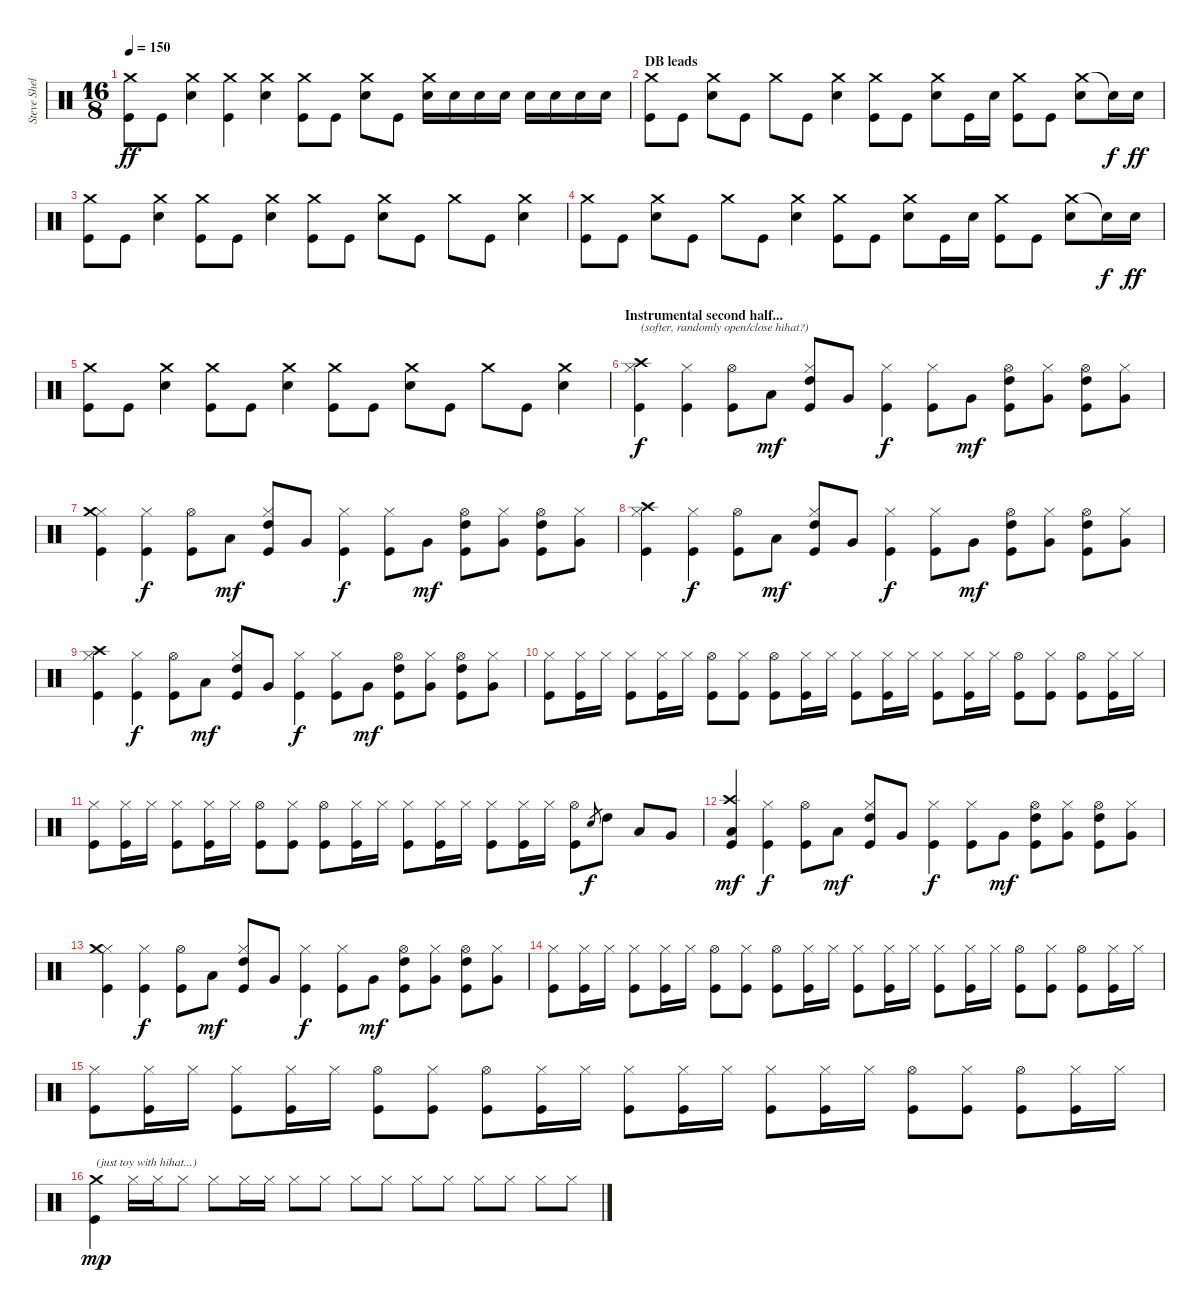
\track ("Steve Shelley" "Steve Shel") {instrument percussion}
\staff {score}
\articulation defaults
\ts (16 8)
\tempo 150
\clef neutral
\ks c
("Crash medium (hit)" "Kick (hit)").8{dy ff} "Kick (hit)".8 ("Crash medium (hit)" "Electric Snare (hit)").4 ("Crash medium (hit)" "Kick (hit)").4 ("Crash medium (hit)" "Electric Snare (hit)").4 ("Crash medium (hit)" "Kick (hit)").8 "Kick (hit)".8 ("Crash medium (hit)" "Electric Snare (hit)").8 "Kick (hit)".8 ("Crash medium (hit)" "Electric Snare (hit)").16 "Electric Snare (hit)".16 "Electric Snare (hit)".16 "Electric Snare (hit)".16 "Electric Snare (hit)".16 "Electric Snare (hit)".16 "Electric Snare (hit)".16 "Electric Snare (hit)".16 |
\section ("" "DB leads")
("Crash medium (hit)" "Kick (hit)").8 "Kick (hit)".8 ("Crash medium (hit)" "Electric Snare (hit)").8 "Kick (hit)".8 "Crash medium (hit)".8 "Kick (hit)".8 ("Crash medium (hit)" "Electric Snare (hit)").4 ("Crash medium (hit)" "Kick (hit)").8 "Kick (hit)".8 ("Crash medium (hit)" "Electric Snare (hit)").8 "Kick (hit)".16 "Electric Snare (hit)".16 ("Crash medium (hit)" "Kick (hit)").8 "Kick (hit)".8 ("Crash medium (hit)" "Electric Snare (hit)").8 "Snare (hit)"{t}.16{dy f} "Electric Snare (hit)".16{dy ff} |
("Crash medium (hit)" "Kick (hit)").8 "Kick (hit)".8 ("Crash medium (hit)" "Electric Snare (hit)").4 ("Crash medium (hit)" "Kick (hit)").8 "Kick (hit)".8 ("Crash medium (hit)" "Electric Snare (hit)").4 ("Crash medium (hit)" "Kick (hit)").8 "Kick (hit)".8 ("Crash medium (hit)" "Electric Snare (hit)").8 "Kick (hit)".8 "Crash medium (hit)".8 "Kick (hit)".8 ("Crash medium (hit)" "Electric Snare (hit)").4 |
("Crash medium (hit)" "Kick (hit)").8 "Kick (hit)".8 ("Crash medium (hit)" "Electric Snare (hit)").8 "Kick (hit)".8 "Crash medium (hit)".8 "Kick (hit)".8 ("Crash medium (hit)" "Electric Snare (hit)").4 ("Crash medium (hit)" "Kick (hit)").8 "Kick (hit)".8 ("Crash medium (hit)" "Electric Snare (hit)").8 "Kick (hit)".16 "Electric Snare (hit)".16 ("Crash medium (hit)" "Kick (hit)").8 "Kick (hit)".8 ("Crash medium (hit)" "Electric Snare (hit)").8 "Snare (hit)"{t}.16{dy f} "Electric Snare (hit)".16{dy ff} |
("Crash medium (hit)" "Kick (hit)").8 "Kick (hit)".8 ("Crash medium (hit)" "Electric Snare (hit)").4 ("Crash medium (hit)" "Kick (hit)").8 "Kick (hit)".8 ("Crash medium (hit)" "Electric Snare (hit)").4 ("Crash medium (hit)" "Kick (hit)").8 "Kick (hit)".8 ("Crash medium (hit)" "Electric Snare (hit)").8 "Kick (hit)".8 "Crash medium (hit)".8 "Kick (hit)".8 ("Crash medium (hit)" "Electric Snare (hit)").4 |
\section ("" "Instrumental second half...")
("Hi-Hat (closed)" "Crash high (hit)" "Kick (hit)").4{txt "(softer, randomly open/close hihat?)" dy f} ("Hi-Hat (closed)" "Kick (hit)").4 ("Hi-Hat (open)" "Kick (hit)").8 "Low Tom (hit)".8{dy mf} ("Hi-Hat (closed)" "High Tom (hit)" "Kick (hit)").8 "Very Low Tom (hit)".8 ("Hi-Hat (closed)" "Kick (hit)").4{dy f} ("Hi-Hat (closed)" "Kick (hit)").8 "Very Low Tom (hit)".8{dy mf} ("Hi-Hat (open)" "High Tom (hit)" "Kick (hit)").8 ("Hi-Hat (closed)" "Very Low Tom (hit)").8 ("Hi-Hat (open)" "High Tom (hit)" "Kick (hit)").8 ("Hi-Hat (closed)" "Very Low Tom (hit)").8 |
("Hi-Hat (closed)" "Crash medium (hit)" "Kick (hit)").4 ("Hi-Hat (closed)" "Kick (hit)").4{dy f} ("Hi-Hat (open)" "Kick (hit)").8 "Low Tom (hit)".8{dy mf} ("Hi-Hat (closed)" "High Tom (hit)" "Kick (hit)").8 "Very Low Tom (hit)".8 ("Hi-Hat (closed)" "Kick (hit)").4{dy f} ("Hi-Hat (closed)" "Kick (hit)").8 "Very Low Tom (hit)".8{dy mf} ("Hi-Hat (open)" "High Tom (hit)" "Kick (hit)").8 ("Hi-Hat (closed)" "Very Low Tom (hit)").8 ("Hi-Hat (open)" "High Tom (hit)" "Kick (hit)").8 ("Hi-Hat (closed)" "Very Low Tom (hit)").8 |
("Hi-Hat (closed)" "Crash high (hit)" "Kick (hit)").4 ("Hi-Hat (closed)" "Kick (hit)").4{dy f} ("Hi-Hat (open)" "Kick (hit)").8 "Low Tom (hit)".8{dy mf} ("Hi-Hat (closed)" "High Tom (hit)" "Kick (hit)").8 "Very Low Tom (hit)".8 ("Hi-Hat (closed)" "Kick (hit)").4{dy f} ("Hi-Hat (closed)" "Kick (hit)").8 "Very Low Tom (hit)".8{dy mf} ("Hi-Hat (open)" "High Tom (hit)" "Kick (hit)").8 ("Hi-Hat (closed)" "Very Low Tom (hit)").8 ("Hi-Hat (open)" "High Tom (hit)" "Kick (hit)").8 ("Hi-Hat (closed)" "Very Low Tom (hit)").8 |
("Hi-Hat (closed)" "Crash high (hit)" "Kick (hit)").4 ("Hi-Hat (closed)" "Kick (hit)").4{dy f} ("Hi-Hat (open)" "Kick (hit)").8 "Low Tom (hit)".8{dy mf} ("Hi-Hat (closed)" "High Tom (hit)" "Kick (hit)").8 "Very Low Tom (hit)".8 ("Hi-Hat (closed)" "Kick (hit)").4{dy f} ("Hi-Hat (closed)" "Kick (hit)").8 "Very Low Tom (hit)".8{dy mf} ("Hi-Hat (open)" "High Tom (hit)" "Kick (hit)").8 ("Hi-Hat (closed)" "Very Low Tom (hit)").8 ("Hi-Hat (open)" "High Tom (hit)" "Kick (hit)").8 ("Hi-Hat (closed)" "Very Low Tom (hit)").8 |
("Hi-Hat (closed)" "Kick (hit)").8 ("Hi-Hat (closed)" "Kick (hit)").16 "Hi-Hat (closed)".16 ("Hi-Hat (closed)" "Kick (hit)").8 ("Hi-Hat (closed)" "Kick (hit)").16 "Hi-Hat (closed)".16 ("Hi-Hat (open)" "Kick (hit)").8 ("Hi-Hat (closed)" "Kick (hit)").8 ("Hi-Hat (open)" "Kick (hit)").8 ("Hi-Hat (closed)" "Kick (hit)").16 "Hi-Hat (closed)".16 ("Hi-Hat (closed)" "Kick (hit)").8 ("Hi-Hat (closed)" "Kick (hit)").16 "Hi-Hat (closed)".16 ("Hi-Hat (closed)" "Kick (hit)").8 ("Hi-Hat (closed)" "Kick (hit)").16 "Hi-Hat (closed)".16 ("Hi-Hat (open)" "Kick (hit)").8 ("Hi-Hat (closed)" "Kick (hit)").8 ("Hi-Hat (open)" "Kick (hit)").8 ("Hi-Hat (closed)" "Kick (hit)").16 "Hi-Hat (closed)".16 |
("Hi-Hat (closed)" "Kick (hit)").8 ("Hi-Hat (closed)" "Kick (hit)").16 "Hi-Hat (closed)".16 ("Hi-Hat (closed)" "Kick (hit)").8 ("Hi-Hat (closed)" "Kick (hit)").16 "Hi-Hat (closed)".16 ("Hi-Hat (open)" "Kick (hit)").8 ("Hi-Hat (closed)" "Kick (hit)").8 ("Hi-Hat (open)" "Kick (hit)").8 ("Hi-Hat (closed)" "Kick (hit)").16 "Hi-Hat (closed)".16 ("Hi-Hat (closed)" "Kick (hit)").8 ("Hi-Hat (closed)" "Kick (hit)").16 "Hi-Hat (closed)".16 ("Hi-Hat (closed)" "Kick (hit)").8 ("Hi-Hat (closed)" "Kick (hit)").16 "Hi-Hat (closed)".16 ("Hi-Hat (open)" "Kick (hit)").8 "Electric Snare (hit)".8{gr dy f} "High Tom (hit)".8 "Low Tom (hit)".8 "Very Low Tom (hit)".8 |
("Crash high (hit)" "Low Floor Tom (hit)" "Kick (hit)").4{dy mf} ("Hi-Hat (closed)" "Kick (hit)").4{dy f} ("Hi-Hat (open)" "Kick (hit)").8 "Low Tom (hit)".8{dy mf} ("Hi-Hat (closed)" "High Tom (hit)" "Kick (hit)").8 "Very Low Tom (hit)".8 ("Hi-Hat (closed)" "Kick (hit)").4{dy f} ("Hi-Hat (closed)" "Kick (hit)").8 "Very Low Tom (hit)".8{dy mf} ("Hi-Hat (open)" "High Tom (hit)" "Kick (hit)").8 ("Hi-Hat (closed)" "Very Low Tom (hit)").8 ("Hi-Hat (open)" "High Tom (hit)" "Kick (hit)").8 ("Hi-Hat (closed)" "Very Low Tom (hit)").8 |
("Hi-Hat (closed)" "Crash medium (hit)" "Kick (hit)").4 ("Hi-Hat (closed)" "Kick (hit)").4{dy f} ("Hi-Hat (open)" "Kick (hit)").8 "Low Tom (hit)".8{dy mf} ("Hi-Hat (closed)" "High Tom (hit)" "Kick (hit)").8 "Very Low Tom (hit)".8 ("Hi-Hat (closed)" "Kick (hit)").4{dy f} ("Hi-Hat (closed)" "Kick (hit)").8 "Very Low Tom (hit)".8{dy mf} ("Hi-Hat (open)" "High Tom (hit)" "Kick (hit)").8 ("Hi-Hat (closed)" "Very Low Tom (hit)").8 ("Hi-Hat (open)" "High Tom (hit)" "Kick (hit)").8 ("Hi-Hat (closed)" "Very Low Tom (hit)").8 |
("Hi-Hat (closed)" "Kick (hit)").8 ("Hi-Hat (closed)" "Kick (hit)").16 "Hi-Hat (closed)".16 ("Hi-Hat (closed)" "Kick (hit)").8 ("Hi-Hat (closed)" "Kick (hit)").16 "Hi-Hat (closed)".16 ("Hi-Hat (open)" "Kick (hit)").8 ("Hi-Hat (closed)" "Kick (hit)").8 ("Hi-Hat (open)" "Kick (hit)").8 ("Hi-Hat (closed)" "Kick (hit)").16 "Hi-Hat (closed)".16 ("Hi-Hat (closed)" "Kick (hit)").8 ("Hi-Hat (closed)" "Kick (hit)").16 "Hi-Hat (closed)".16 ("Hi-Hat (closed)" "Kick (hit)").8 ("Hi-Hat (closed)" "Kick (hit)").16 "Hi-Hat (closed)".16 ("Hi-Hat (open)" "Kick (hit)").8 ("Hi-Hat (closed)" "Kick (hit)").8 ("Hi-Hat (open)" "Kick (hit)").8 ("Hi-Hat (closed)" "Kick (hit)").16 "Hi-Hat (closed)".16 |
("Hi-Hat (closed)" "Kick (hit)").8 ("Hi-Hat (closed)" "Kick (hit)").16 "Hi-Hat (closed)".16 ("Hi-Hat (closed)" "Kick (hit)").8 ("Hi-Hat (closed)" "Kick (hit)").16 "Hi-Hat (closed)".16 ("Hi-Hat (open)" "Kick (hit)").8 ("Hi-Hat (closed)" "Kick (hit)").8 ("Hi-Hat (open)" "Kick (hit)").8 ("Hi-Hat (closed)" "Kick (hit)").16 "Hi-Hat (closed)".16 ("Hi-Hat (closed)" "Kick (hit)").8 ("Hi-Hat (closed)" "Kick (hit)").16 "Hi-Hat (closed)".16 ("Hi-Hat (closed)" "Kick (hit)").8 ("Hi-Hat (closed)" "Kick (hit)").16 "Hi-Hat (closed)".16 ("Hi-Hat (open)" "Kick (hit)").8 ("Hi-Hat (closed)" "Kick (hit)").8 ("Hi-Hat (open)" "Kick (hit)").8 ("Hi-Hat (closed)" "Kick (hit)").16 "Hi-Hat (closed)".16 |
("Crash medium (hit)" "Kick (hit)").4{txt "(just toy with hihat...)" dy mp} "Hi-Hat (closed)".16 "Hi-Hat (closed)".16 "Hi-Hat (closed)".8 "Hi-Hat (closed)".8 "Hi-Hat (closed)".16 "Hi-Hat (closed)".16 "Hi-Hat (closed)".8 "Hi-Hat (closed)".8 "Hi-Hat (closed)".8 "Hi-Hat (closed)".8 "Hi-Hat (closed)".8 "Hi-Hat (closed)".8 "Hi-Hat (closed)".8 "Hi-Hat (closed)".8 "Hi-Hat (closed)".8 "Hi-Hat (closed)".8
